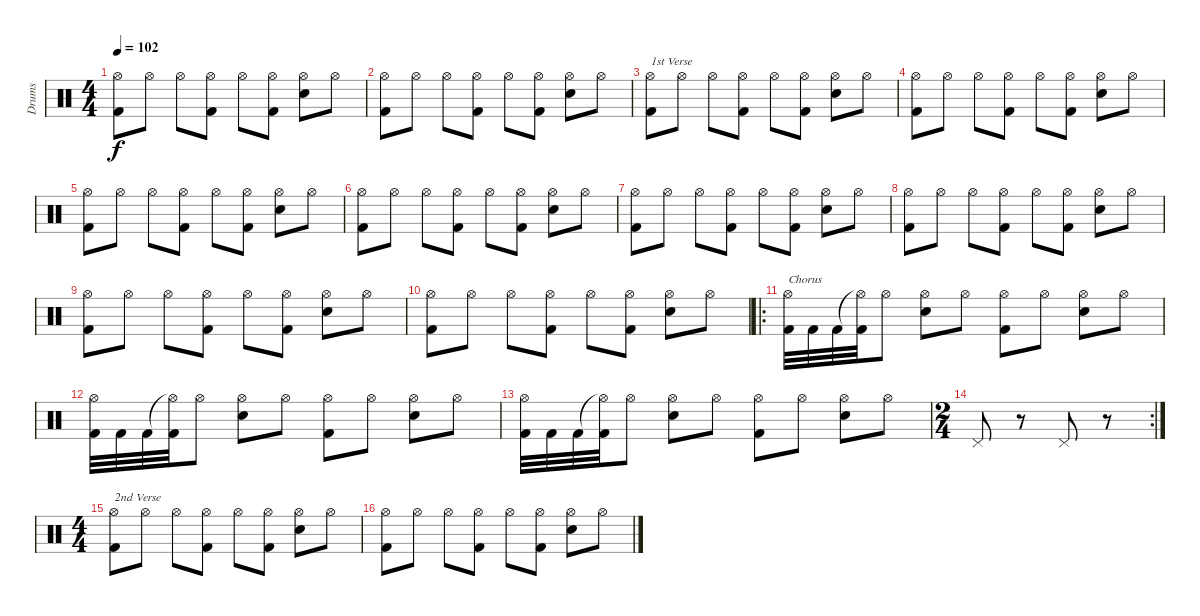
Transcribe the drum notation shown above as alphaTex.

\track ("Drums" "Drums") {instrument percussion}
\staff {score}
\articulation defaults
\ts (4 4)
\tempo 102
\clef neutral
\ks c
("Hi-Hat (open)" "Kick (hit) 2").8{dy f} "Hi-Hat (open)".8 "Hi-Hat (open)".8 ("Hi-Hat (open)" "Kick (hit) 2").8 "Hi-Hat (open)".8 ("Hi-Hat (open)" "Kick (hit) 2").8 ("Hi-Hat (open)" "Snare (hit) 2").8 "Hi-Hat (open)".8 |
("Hi-Hat (open)" "Kick (hit) 2").8 "Hi-Hat (open)".8 "Hi-Hat (open)".8 ("Hi-Hat (open)" "Kick (hit) 2").8 "Hi-Hat (open)".8 ("Hi-Hat (open)" "Kick (hit) 2").8 ("Hi-Hat (open)" "Snare (hit) 2").8 "Hi-Hat (open)".8 |
("Hi-Hat (open)" "Kick (hit) 2").8{txt "1st Verse"} "Hi-Hat (open)".8 "Hi-Hat (open)".8 ("Hi-Hat (open)" "Kick (hit) 2").8 "Hi-Hat (open)".8 ("Hi-Hat (open)" "Kick (hit) 2").8 ("Hi-Hat (open)" "Snare (hit) 2").8 "Hi-Hat (open)".8 |
("Hi-Hat (open)" "Kick (hit) 2").8 "Hi-Hat (open)".8 "Hi-Hat (open)".8 ("Hi-Hat (open)" "Kick (hit) 2").8 "Hi-Hat (open)".8 ("Hi-Hat (open)" "Kick (hit) 2").8 ("Hi-Hat (open)" "Snare (hit) 2").8 "Hi-Hat (open)".8 |
("Hi-Hat (open)" "Kick (hit) 2").8 "Hi-Hat (open)".8 "Hi-Hat (open)".8 ("Hi-Hat (open)" "Kick (hit) 2").8 "Hi-Hat (open)".8 ("Hi-Hat (open)" "Kick (hit) 2").8 ("Hi-Hat (open)" "Snare (hit) 2").8 "Hi-Hat (open)".8 |
("Hi-Hat (open)" "Kick (hit) 2").8 "Hi-Hat (open)".8 "Hi-Hat (open)".8 ("Hi-Hat (open)" "Kick (hit) 2").8 "Hi-Hat (open)".8 ("Hi-Hat (open)" "Kick (hit) 2").8 ("Hi-Hat (open)" "Snare (hit) 2").8 "Hi-Hat (open)".8 |
("Hi-Hat (open)" "Kick (hit) 2").8 "Hi-Hat (open)".8 "Hi-Hat (open)".8 ("Hi-Hat (open)" "Kick (hit) 2").8 "Hi-Hat (open)".8 ("Hi-Hat (open)" "Kick (hit) 2").8 ("Hi-Hat (open)" "Snare (hit) 2").8 "Hi-Hat (open)".8 |
("Hi-Hat (open)" "Kick (hit) 2").8 "Hi-Hat (open)".8 "Hi-Hat (open)".8 ("Hi-Hat (open)" "Kick (hit) 2").8 "Hi-Hat (open)".8 ("Hi-Hat (open)" "Kick (hit) 2").8 ("Hi-Hat (open)" "Snare (hit) 2").8 "Hi-Hat (open)".8 |
("Hi-Hat (open)" "Kick (hit) 2").8 "Hi-Hat (open)".8 "Hi-Hat (open)".8 ("Hi-Hat (open)" "Kick (hit) 2").8 "Hi-Hat (open)".8 ("Hi-Hat (open)" "Kick (hit) 2").8 ("Hi-Hat (open)" "Snare (hit) 2").8 "Hi-Hat (open)".8 |
("Hi-Hat (open)" "Kick (hit) 2").8 "Hi-Hat (open)".8 "Hi-Hat (open)".8 ("Hi-Hat (open)" "Kick (hit) 2").8 "Hi-Hat (open)".8 ("Hi-Hat (open)" "Kick (hit) 2").8 ("Hi-Hat (open)" "Snare (hit) 2").8 "Hi-Hat (open)".8 |
\ro
("Hi-Hat (open)" "Kick (hit) 2").32{txt "Chorus"} "Kick (hit) 2".32 "Kick (hit) 2".32 ("Hi-Hat (open)"{t} "Kick (hit) 2").32 "Hi-Hat (open)".8 ("Hi-Hat (open)" "Snare (hit) 2").8 "Hi-Hat (open)".8 ("Hi-Hat (open)" "Kick (hit) 2").8 "Hi-Hat (open)".8 ("Hi-Hat (open)" "Snare (hit) 2").8 "Hi-Hat (open)".8 |
("Hi-Hat (open)" "Kick (hit) 2").32 "Kick (hit) 2".32 "Kick (hit) 2".32 ("Hi-Hat (open)"{t} "Kick (hit) 2").32 "Hi-Hat (open)".8 ("Hi-Hat (open)" "Snare (hit) 2").8 "Hi-Hat (open)".8 ("Hi-Hat (open)" "Kick (hit) 2").8 "Hi-Hat (open)".8 ("Hi-Hat (open)" "Snare (hit) 2").8 "Hi-Hat (open)".8 |
("Hi-Hat (open)" "Kick (hit) 2").32 "Kick (hit) 2".32 "Kick (hit) 2".32 ("Hi-Hat (open)"{t} "Kick (hit) 2").32 "Hi-Hat (open)".8 ("Hi-Hat (open)" "Snare (hit) 2").8 "Hi-Hat (open)".8 ("Hi-Hat (open)" "Kick (hit) 2").8 "Hi-Hat (open)".8 ("Hi-Hat (open)" "Snare (hit) 2").8 "Hi-Hat (open)".8 |
\rc 2
\ts (2 4)
"Pedal Hi-Hat (hit)".8 r.8 "Pedal Hi-Hat (hit)".8 r.8 |
\ts (4 4)
("Hi-Hat (open)" "Kick (hit) 2").8{txt "2nd Verse"} "Hi-Hat (open)".8 "Hi-Hat (open)".8 ("Hi-Hat (open)" "Kick (hit) 2").8 "Hi-Hat (open)".8 ("Hi-Hat (open)" "Kick (hit) 2").8 ("Hi-Hat (open)" "Snare (hit) 2").8 "Hi-Hat (open)".8 |
("Hi-Hat (open)" "Kick (hit) 2").8 "Hi-Hat (open)".8 "Hi-Hat (open)".8 ("Hi-Hat (open)" "Kick (hit) 2").8 "Hi-Hat (open)".8 ("Hi-Hat (open)" "Kick (hit) 2").8 ("Hi-Hat (open)" "Snare (hit) 2").8 "Hi-Hat (open)".8
